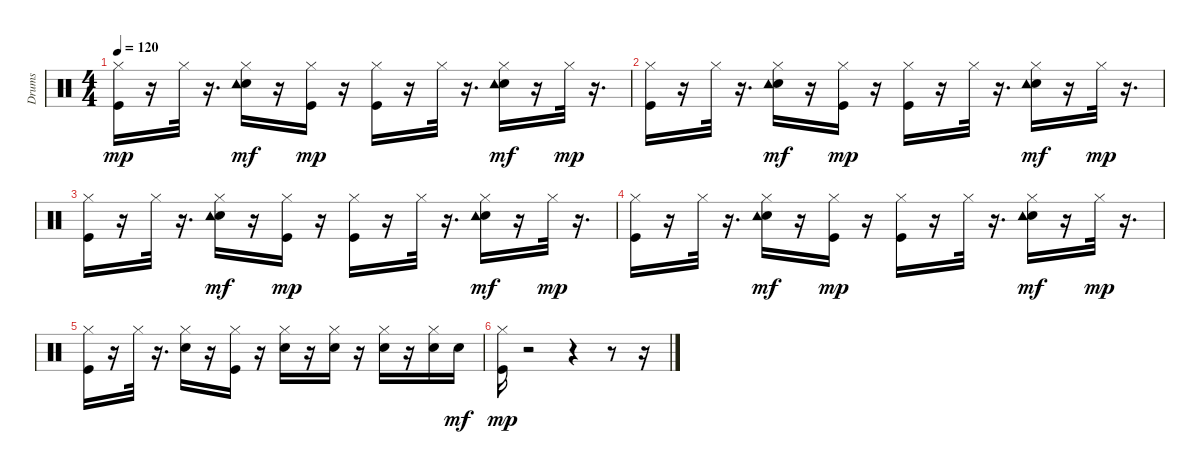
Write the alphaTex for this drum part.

\track ("Drums" "Drums") {instrument percussion}
\staff {score}
\articulation defaults
\ts (4 4)
\tempo 120
\clef neutral
\ks c
("Kick (hit)" "Hi-Hat (closed)").16{dy mp} r.16 "Hi-Hat (closed)".32 r.16{d} ("Electric Snare (hit)" "Hi-Hat (closed)" "Tambourine (hit)").16{dy mf} r.16 ("Kick (hit)" "Hi-Hat (closed)").16{dy mp} r.16 ("Kick (hit)" "Hi-Hat (closed)").16 r.16 "Hi-Hat (closed)".32 r.16{d} ("Electric Snare (hit)" "Hi-Hat (closed)" "Tambourine (hit)").16{dy mf} r.16 "Hi-Hat (closed)".32{dy mp} r.16{d} |
("Kick (hit)" "Hi-Hat (closed)").16 r.16 "Hi-Hat (closed)".32 r.16{d} ("Electric Snare (hit)" "Hi-Hat (closed)" "Tambourine (hit)").16{dy mf} r.16 ("Kick (hit)" "Hi-Hat (closed)").16{dy mp} r.16 ("Kick (hit)" "Hi-Hat (closed)").16 r.16 "Hi-Hat (closed)".32 r.16{d} ("Electric Snare (hit)" "Hi-Hat (closed)" "Tambourine (hit)").16{dy mf} r.16 "Hi-Hat (closed)".32{dy mp} r.16{d} |
("Kick (hit)" "Hi-Hat (closed)").16 r.16 "Hi-Hat (closed)".32 r.16{d} ("Electric Snare (hit)" "Hi-Hat (closed)" "Tambourine (hit)").16{dy mf} r.16 ("Kick (hit)" "Hi-Hat (closed)").16{dy mp} r.16 ("Kick (hit)" "Hi-Hat (closed)").16 r.16 "Hi-Hat (closed)".32 r.16{d} ("Electric Snare (hit)" "Hi-Hat (closed)" "Tambourine (hit)").16{dy mf} r.16 "Hi-Hat (closed)".32{dy mp} r.16{d} |
("Kick (hit)" "Hi-Hat (closed)").16 r.16 "Hi-Hat (closed)".32 r.16{d} ("Electric Snare (hit)" "Hi-Hat (closed)" "Tambourine (hit)").16{dy mf} r.16 ("Kick (hit)" "Hi-Hat (closed)").16{dy mp} r.16 ("Kick (hit)" "Hi-Hat (closed)").16 r.16 "Hi-Hat (closed)".32 r.16{d} ("Electric Snare (hit)" "Hi-Hat (closed)" "Tambourine (hit)").16{dy mf} r.16 "Hi-Hat (closed)".32{dy mp} r.16{d} |
("Kick (hit)" "Hi-Hat (closed)").16 r.16 "Hi-Hat (closed)".32 r.16{d} ("Electric Snare (hit)" "Hi-Hat (closed)").16 r.16 ("Kick (hit)" "Hi-Hat (closed)").16 r.16 ("Electric Snare (hit)" "Hi-Hat (closed)").16 r.16 ("Electric Snare (hit)" "Hi-Hat (closed)").16 r.16 ("Electric Snare (hit)" "Hi-Hat (closed)").16 r.16 ("Electric Snare (hit)" "Hi-Hat (closed)").16 "Electric Snare (hit)".16{dy mf} |
("Kick (hit)" "Hi-Hat (closed)").16{dy mp} r.2 r.4 r.8 r.16
